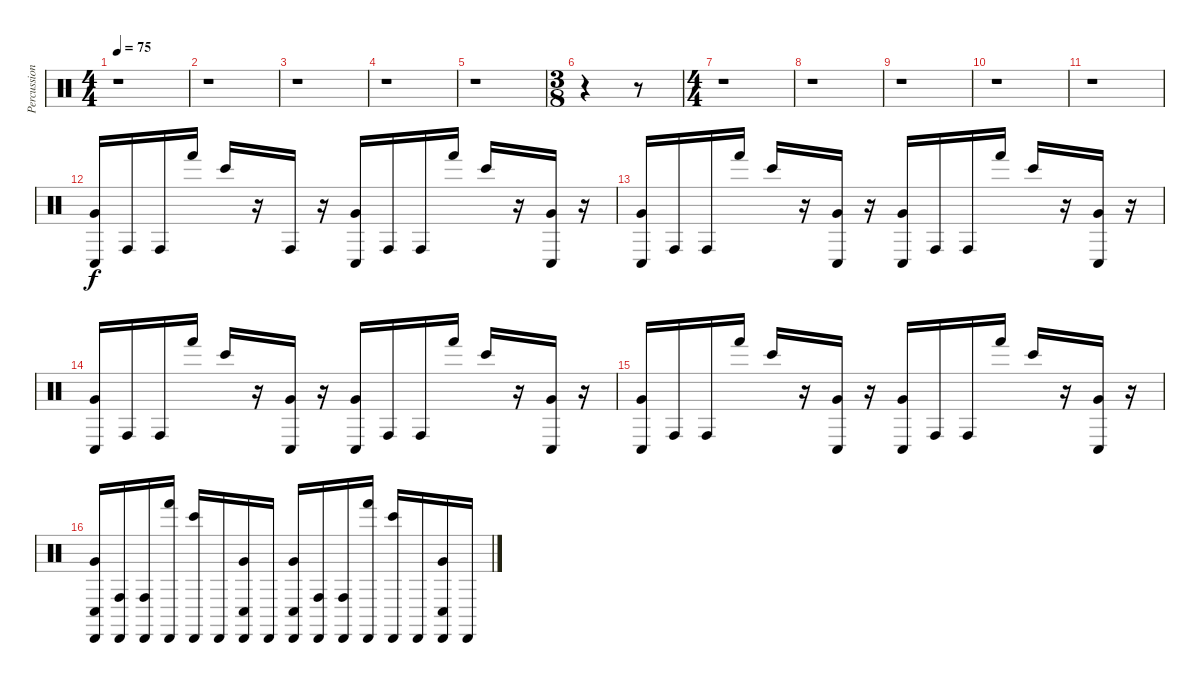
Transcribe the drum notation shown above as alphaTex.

\track ("Percussions" "Percussion") {instrument percussion}
\staff {score}
\articulation defaults
\ts (4 4)
\tempo 75
\clef neutral
\ks c
r.1{dy f} |
r.1 |
r.1 |
r.1 |
r.1 |
\ts (3 8)
r.4 r.8 |
\ts (4 4)
r.1 |
r.1 |
r.1 |
r.1 |
r.1 |
("Conga low (hit)" "Very Low Tom (hit)").16 "Conga high (hit)".16 "Conga high (hit)".16 "Hand (hit)".16 "Bongo High (hit)".16 r.16 "Conga high (hit)".16 r.16 ("Conga low (hit)" "Very Low Tom (hit)").16 "Conga high (hit)".16 "Conga high (hit)".16 "Hand (hit)".16 "Bongo High (hit)".16 r.16 ("Conga low (hit)" "Very Low Tom (hit)").16 r.16 |
("Conga low (hit)" "Very Low Tom (hit)").16 "Conga high (hit)".16 "Conga high (hit)".16 "Hand (hit)".16 "Bongo High (hit)".16 r.16 ("Conga low (hit)" "Very Low Tom (hit)").16 r.16 ("Conga low (hit)" "Very Low Tom (hit)").16 "Conga high (hit)".16 "Conga high (hit)".16 "Hand (hit)".16 "Bongo High (hit)".16 r.16 ("Conga low (hit)" "Very Low Tom (hit)").16 r.16 |
("Conga low (hit)" "Very Low Tom (hit)").16 "Conga high (hit)".16 "Conga high (hit)".16 "Hand (hit)".16 "Bongo High (hit)".16 r.16 ("Conga low (hit)" "Very Low Tom (hit)").16 r.16 ("Conga low (hit)" "Very Low Tom (hit)").16 "Conga high (hit)".16 "Conga high (hit)".16 "Hand (hit)".16 "Bongo High (hit)".16 r.16 ("Conga low (hit)" "Very Low Tom (hit)").16 r.16 |
("Conga low (hit)" "Very Low Tom (hit)").16 "Conga high (hit)".16 "Conga high (hit)".16 "Hand (hit)".16 "Bongo High (hit)".16 r.16 ("Conga low (hit)" "Very Low Tom (hit)").16 r.16 ("Conga low (hit)" "Very Low Tom (hit)").16 "Conga high (hit)".16 "Conga high (hit)".16 "Hand (hit)".16 "Bongo High (hit)".16 r.16 ("Conga low (hit)" "Very Low Tom (hit)").16 r.16 |
("Conga low (hit)" "Very Low Tom (hit)" "Cabasa (hit)").16 ("Conga high (hit)" "Cabasa (hit)").16 ("Conga high (hit)" "Cabasa (hit)").16 ("Hand (hit)" "Cabasa (hit)").16 ("Bongo High (hit)" "Cabasa (hit)").16 "Cabasa (hit)".16 ("Conga low (hit)" "Very Low Tom (hit)" "Cabasa (hit)").16 "Cabasa (hit)".16 ("Conga low (hit)" "Very Low Tom (hit)" "Cabasa (hit)").16 ("Conga high (hit)" "Cabasa (hit)").16 ("Conga high (hit)" "Cabasa (hit)").16 ("Hand (hit)" "Cabasa (hit)").16 ("Bongo High (hit)" "Cabasa (hit)").16 "Cabasa (hit)".16 ("Conga low (hit)" "Very Low Tom (hit)" "Cabasa (hit)").16 "Cabasa (hit)".16
